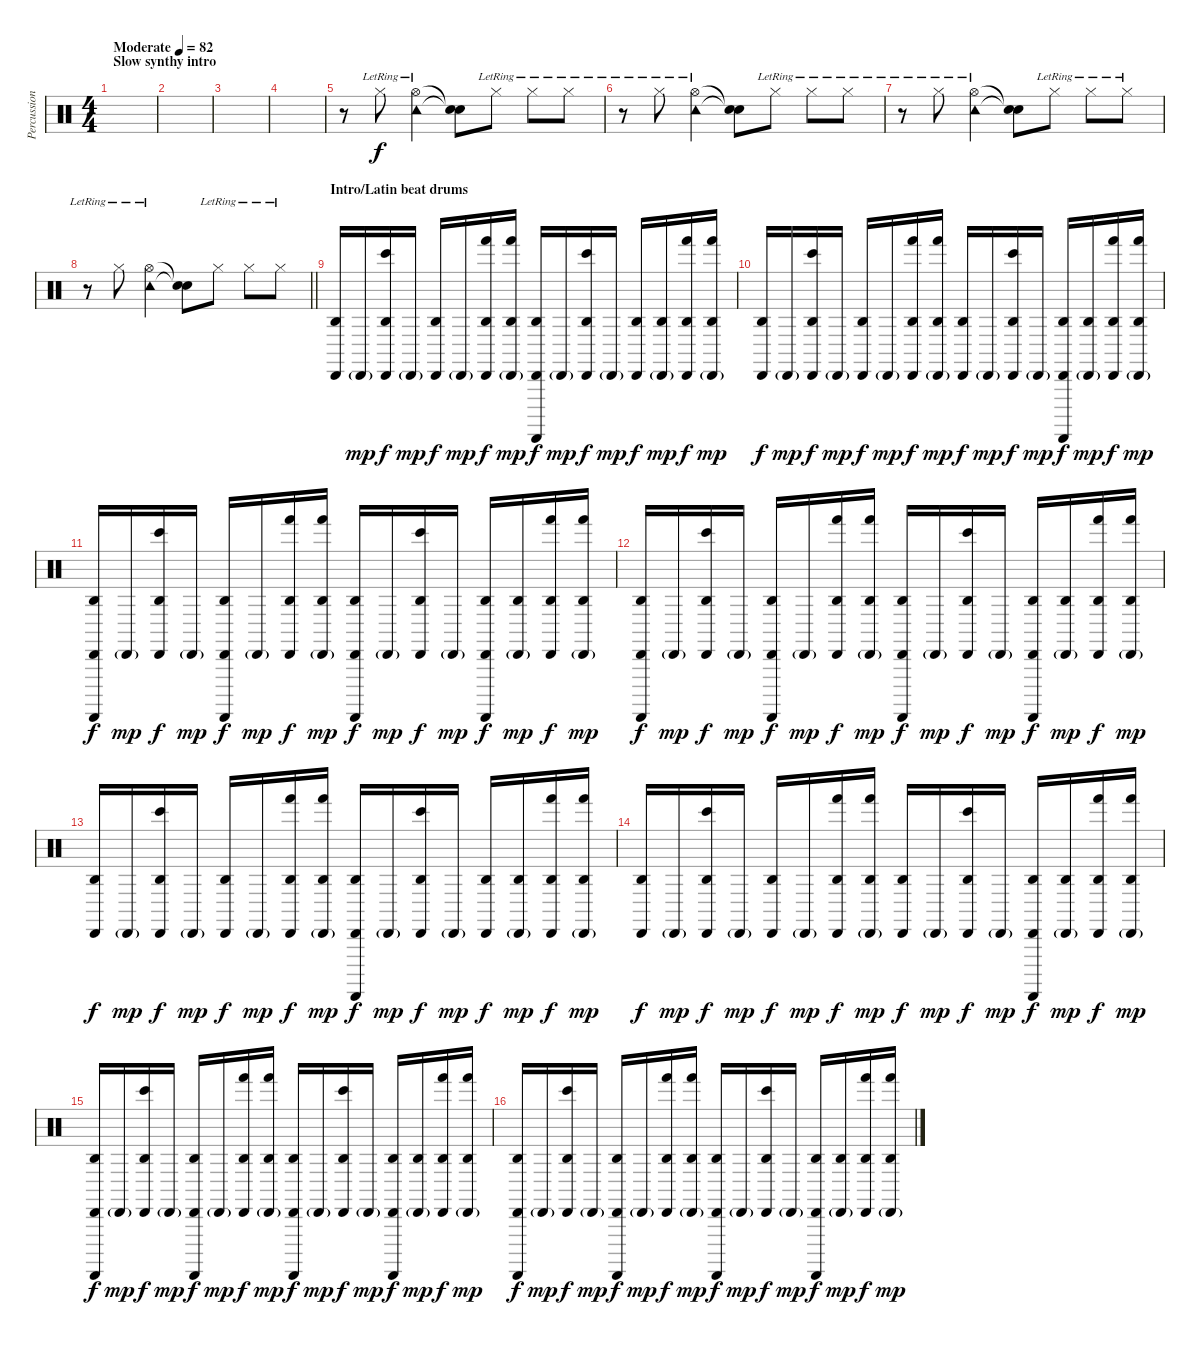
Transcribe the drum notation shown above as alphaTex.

\track ("Percussion" "Percussion") {instrument percussion}
\staff {score}
\articulation defaults
\ts (4 4)
\section ("" "Slow synthy intro")
\tempo (82 "Moderate")
\clef neutral
\ks c
|
|
|
|
r.8 "Hi-Hat (closed)"{lr}.8 ("Hi-Hat (open)"{lr} "Tambourine (hit)"{lr}).4 ("Snare (hit)"{t} "Snare (hit)"{t}).8 "Hi-Hat (closed)"{lr}.8 "Hi-Hat (closed)"{lr}.8 "Hi-Hat (closed)"{lr}.8 |
r.8 "Hi-Hat (closed)"{lr}.8 ("Hi-Hat (open)"{lr} "Tambourine (hit)"{lr}).4 ("Snare (hit)"{t} "Snare (hit)"{t}).8 "Hi-Hat (closed)"{lr}.8 "Hi-Hat (closed)"{lr}.8 "Hi-Hat (closed)"{lr}.8 |
r.8 "Hi-Hat (closed)"{lr}.8 ("Hi-Hat (open)"{lr} "Tambourine (hit)"{lr}).4 ("Snare (hit)"{t} "Snare (hit)"{t}).8 "Hi-Hat (closed)"{lr}.8 "Hi-Hat (closed)"{lr}.8 "Hi-Hat (closed)"{lr}.8 |
\barLineRight lightlight
r.8 "Hi-Hat (closed)"{lr}.8 ("Hi-Hat (open)"{lr} "Tambourine (hit)"{lr}).4 ("Snare (hit)"{t} "Snare (hit)"{t}).8 "Hi-Hat (closed)"{lr}.8 "Hi-Hat (closed)"{lr}.8 "Hi-Hat (closed)"{lr}.8 |
\section ("" "Intro/Latin beat drums")
("Cabasa (hit)" "Agogo high (hit)").16 "Cabasa (hit)"{g}.16{dy mp} ("Cabasa (hit)" "Agogo high (hit)" "Bongo High (hit)").16{dy f} "Cabasa (hit)"{g}.16{dy mp} ("Cabasa (hit)" "Agogo high (hit)").16{dy f} "Cabasa (hit)"{g}.16{dy mp} ("Cabasa (hit)" "Agogo high (hit)" "Hand (hit)").16{dy f} ("Cabasa (hit)"{g} "Agogo high (hit)" "Hand (hit)").16{dy mp} ("Cabasa (hit)" "Agogo high (hit)" "Guiro (scrap-return)").16{dy f} "Cabasa (hit)"{g}.16{dy mp} ("Cabasa (hit)" "Agogo high (hit)" "Bongo High (hit)").16{dy f} "Cabasa (hit)"{g}.16{dy mp} ("Cabasa (hit)" "Agogo high (hit)").16{dy f} ("Cabasa (hit)"{g} "Agogo high (hit)").16{dy mp} ("Cabasa (hit)" "Agogo high (hit)" "Hand (hit)").16{dy f} ("Cabasa (hit)"{g} "Agogo high (hit)" "Hand (hit)").16{dy mp} |
("Cabasa (hit)" "Agogo high (hit)").16{dy f} "Cabasa (hit)"{g}.16{dy mp} ("Cabasa (hit)" "Agogo high (hit)" "Bongo High (hit)").16{dy f} "Cabasa (hit)"{g}.16{dy mp} ("Cabasa (hit)" "Agogo high (hit)").16{dy f} "Cabasa (hit)"{g}.16{dy mp} ("Cabasa (hit)" "Agogo high (hit)" "Hand (hit)").16{dy f} ("Cabasa (hit)"{g} "Agogo high (hit)" "Hand (hit)").16{dy mp} ("Cabasa (hit)" "Agogo high (hit)").16{dy f} "Cabasa (hit)"{g}.16{dy mp} ("Cabasa (hit)" "Agogo high (hit)" "Bongo High (hit)").16{dy f} "Cabasa (hit)"{g}.16{dy mp} ("Cabasa (hit)" "Agogo high (hit)" "Guiro (scrap-return)").16{dy f} ("Cabasa (hit)"{g} "Agogo high (hit)").16{dy mp} ("Cabasa (hit)" "Agogo high (hit)" "Hand (hit)").16{dy f} ("Cabasa (hit)"{g} "Agogo high (hit)" "Hand (hit)").16{dy mp} |
("Cabasa (hit)" "Agogo high (hit)" "Guiro (scrap-return)").16{dy f} "Cabasa (hit)"{g}.16{dy mp} ("Cabasa (hit)" "Agogo high (hit)" "Bongo High (hit)").16{dy f} "Cabasa (hit)"{g}.16{dy mp} ("Cabasa (hit)" "Agogo high (hit)" "Guiro (scrap-return)").16{dy f} "Cabasa (hit)"{g}.16{dy mp} ("Cabasa (hit)" "Agogo high (hit)" "Hand (hit)").16{dy f} ("Cabasa (hit)"{g} "Agogo high (hit)" "Hand (hit)").16{dy mp} ("Cabasa (hit)" "Agogo high (hit)" "Guiro (scrap-return)").16{dy f} "Cabasa (hit)"{g}.16{dy mp} ("Cabasa (hit)" "Agogo high (hit)" "Bongo High (hit)").16{dy f} "Cabasa (hit)"{g}.16{dy mp} ("Cabasa (hit)" "Agogo high (hit)" "Guiro (scrap-return)").16{dy f} ("Cabasa (hit)"{g} "Agogo high (hit)").16{dy mp} ("Cabasa (hit)" "Agogo high (hit)" "Hand (hit)").16{dy f} ("Cabasa (hit)"{g} "Agogo high (hit)" "Hand (hit)").16{dy mp} |
("Cabasa (hit)" "Agogo high (hit)" "Guiro (scrap-return)").16{dy f} "Cabasa (hit)"{g}.16{dy mp} ("Cabasa (hit)" "Agogo high (hit)" "Bongo High (hit)").16{dy f} "Cabasa (hit)"{g}.16{dy mp} ("Cabasa (hit)" "Agogo high (hit)" "Guiro (scrap-return)").16{dy f} "Cabasa (hit)"{g}.16{dy mp} ("Cabasa (hit)" "Agogo high (hit)" "Hand (hit)").16{dy f} ("Cabasa (hit)"{g} "Agogo high (hit)" "Hand (hit)").16{dy mp} ("Cabasa (hit)" "Agogo high (hit)" "Guiro (scrap-return)").16{dy f} "Cabasa (hit)"{g}.16{dy mp} ("Cabasa (hit)" "Agogo high (hit)" "Bongo High (hit)").16{dy f} "Cabasa (hit)"{g}.16{dy mp} ("Cabasa (hit)" "Agogo high (hit)" "Guiro (scrap-return)").16{dy f} ("Cabasa (hit)"{g} "Agogo high (hit)").16{dy mp} ("Cabasa (hit)" "Agogo high (hit)" "Hand (hit)").16{dy f} ("Cabasa (hit)"{g} "Agogo high (hit)" "Hand (hit)").16{dy mp} |
("Cabasa (hit)" "Agogo high (hit)").16{dy f} "Cabasa (hit)"{g}.16{dy mp} ("Cabasa (hit)" "Agogo high (hit)" "Bongo High (hit)").16{dy f} "Cabasa (hit)"{g}.16{dy mp} ("Cabasa (hit)" "Agogo high (hit)").16{dy f} "Cabasa (hit)"{g}.16{dy mp} ("Cabasa (hit)" "Agogo high (hit)" "Hand (hit)").16{dy f} ("Cabasa (hit)"{g} "Agogo high (hit)" "Hand (hit)").16{dy mp} ("Cabasa (hit)" "Agogo high (hit)" "Guiro (scrap-return)").16{dy f} "Cabasa (hit)"{g}.16{dy mp} ("Cabasa (hit)" "Agogo high (hit)" "Bongo High (hit)").16{dy f} "Cabasa (hit)"{g}.16{dy mp} ("Cabasa (hit)" "Agogo high (hit)").16{dy f} ("Cabasa (hit)"{g} "Agogo high (hit)").16{dy mp} ("Cabasa (hit)" "Agogo high (hit)" "Hand (hit)").16{dy f} ("Cabasa (hit)"{g} "Agogo high (hit)" "Hand (hit)").16{dy mp} |
("Cabasa (hit)" "Agogo high (hit)").16{dy f} "Cabasa (hit)"{g}.16{dy mp} ("Cabasa (hit)" "Agogo high (hit)" "Bongo High (hit)").16{dy f} "Cabasa (hit)"{g}.16{dy mp} ("Cabasa (hit)" "Agogo high (hit)").16{dy f} "Cabasa (hit)"{g}.16{dy mp} ("Cabasa (hit)" "Agogo high (hit)" "Hand (hit)").16{dy f} ("Cabasa (hit)"{g} "Agogo high (hit)" "Hand (hit)").16{dy mp} ("Cabasa (hit)" "Agogo high (hit)").16{dy f} "Cabasa (hit)"{g}.16{dy mp} ("Cabasa (hit)" "Agogo high (hit)" "Bongo High (hit)").16{dy f} "Cabasa (hit)"{g}.16{dy mp} ("Cabasa (hit)" "Agogo high (hit)" "Guiro (scrap-return)").16{dy f} ("Cabasa (hit)"{g} "Agogo high (hit)").16{dy mp} ("Cabasa (hit)" "Agogo high (hit)" "Hand (hit)").16{dy f} ("Cabasa (hit)"{g} "Agogo high (hit)" "Hand (hit)").16{dy mp} |
("Cabasa (hit)" "Agogo high (hit)" "Guiro (scrap-return)").16{dy f} "Cabasa (hit)"{g}.16{dy mp} ("Cabasa (hit)" "Agogo high (hit)" "Bongo High (hit)").16{dy f} "Cabasa (hit)"{g}.16{dy mp} ("Cabasa (hit)" "Agogo high (hit)" "Guiro (scrap-return)").16{dy f} "Cabasa (hit)"{g}.16{dy mp} ("Cabasa (hit)" "Agogo high (hit)" "Hand (hit)").16{dy f} ("Cabasa (hit)"{g} "Agogo high (hit)" "Hand (hit)").16{dy mp} ("Cabasa (hit)" "Agogo high (hit)" "Guiro (scrap-return)").16{dy f} "Cabasa (hit)"{g}.16{dy mp} ("Cabasa (hit)" "Agogo high (hit)" "Bongo High (hit)").16{dy f} "Cabasa (hit)"{g}.16{dy mp} ("Cabasa (hit)" "Agogo high (hit)" "Guiro (scrap-return)").16{dy f} ("Cabasa (hit)"{g} "Agogo high (hit)").16{dy mp} ("Cabasa (hit)" "Agogo high (hit)" "Hand (hit)").16{dy f} ("Cabasa (hit)"{g} "Agogo high (hit)" "Hand (hit)").16{dy mp} |
("Cabasa (hit)" "Agogo high (hit)" "Guiro (scrap-return)").16{dy f} "Cabasa (hit)"{g}.16{dy mp} ("Cabasa (hit)" "Agogo high (hit)" "Bongo High (hit)").16{dy f} "Cabasa (hit)"{g}.16{dy mp} ("Cabasa (hit)" "Agogo high (hit)" "Guiro (scrap-return)").16{dy f} "Cabasa (hit)"{g}.16{dy mp} ("Cabasa (hit)" "Agogo high (hit)" "Hand (hit)").16{dy f} ("Cabasa (hit)"{g} "Agogo high (hit)" "Hand (hit)").16{dy mp} ("Cabasa (hit)" "Agogo high (hit)" "Guiro (scrap-return)").16{dy f} "Cabasa (hit)"{g}.16{dy mp} ("Cabasa (hit)" "Agogo high (hit)" "Bongo High (hit)").16{dy f} "Cabasa (hit)"{g}.16{dy mp} ("Cabasa (hit)" "Agogo high (hit)" "Guiro (scrap-return)").16{dy f} ("Cabasa (hit)"{g} "Agogo high (hit)").16{dy mp} ("Cabasa (hit)" "Agogo high (hit)" "Hand (hit)").16{dy f} ("Cabasa (hit)"{g} "Agogo high (hit)" "Hand (hit)").16{dy mp}
